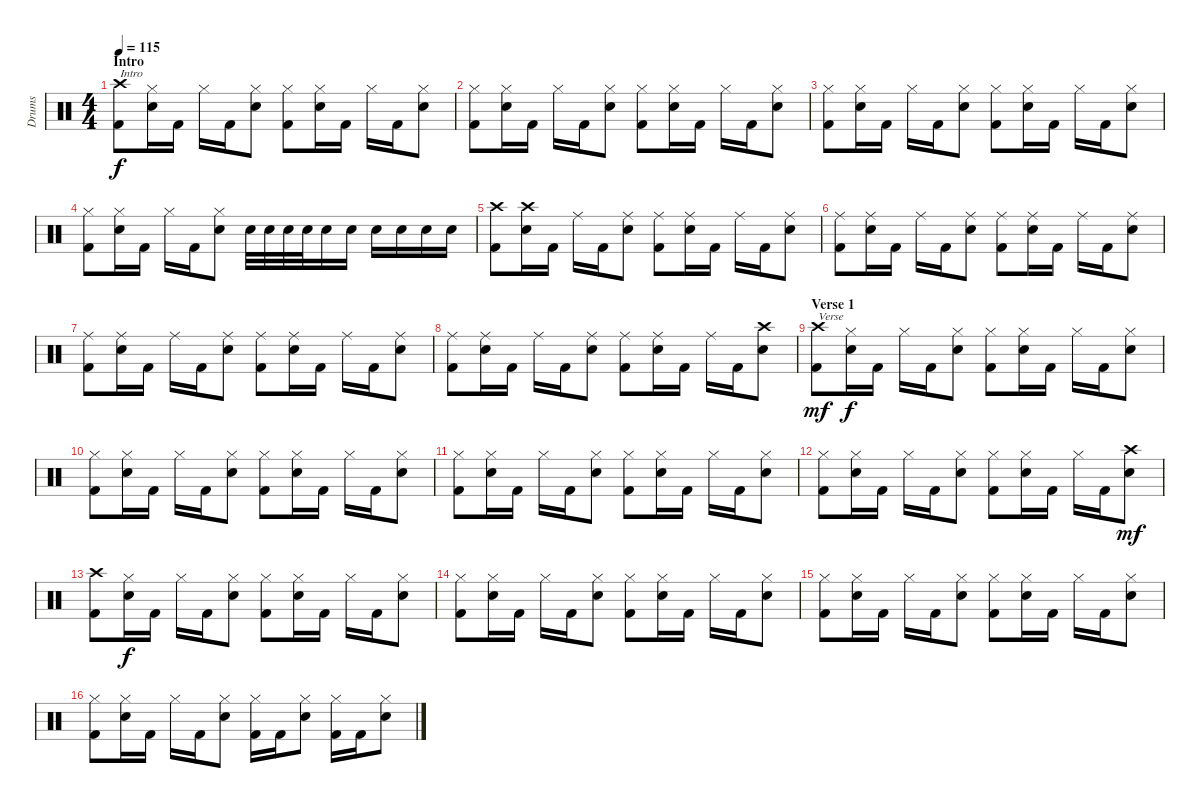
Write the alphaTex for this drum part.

\track ("Drums" "Drums") {instrument percussion}
\staff {score}
\articulation defaults
\ts (4 4)
\section ("" "Intro")
\tempo 115
\clef neutral
\ks c
("Kick (hit) 2" "Crash high (hit)").8{txt "Intro" dy f} ("Snare (hit) 2" "Hi-Hat (closed)").16 "Kick (hit) 2".16 "Hi-Hat (closed)".16 "Kick (hit) 2".16 ("Snare (hit) 2" "Hi-Hat (closed)").8 ("Kick (hit) 2" "Hi-Hat (closed)").8 ("Snare (hit) 2" "Hi-Hat (closed)").16 "Kick (hit) 2".16 "Hi-Hat (closed)".16 "Kick (hit) 2".16 ("Snare (hit) 2" "Hi-Hat (closed)").8 |
("Kick (hit) 2" "Hi-Hat (closed)").8 ("Snare (hit) 2" "Hi-Hat (closed)").16 "Kick (hit) 2".16 "Hi-Hat (closed)".16 "Kick (hit) 2".16 ("Snare (hit) 2" "Hi-Hat (closed)").8 ("Kick (hit) 2" "Hi-Hat (closed)").8 ("Snare (hit) 2" "Hi-Hat (closed)").16 "Kick (hit) 2".16 "Hi-Hat (closed)".16 "Kick (hit) 2".16 ("Snare (hit) 2" "Hi-Hat (closed)").8 |
("Kick (hit) 2" "Hi-Hat (closed)").8 ("Snare (hit) 2" "Hi-Hat (closed)").16 "Kick (hit) 2".16 "Hi-Hat (closed)".16 "Kick (hit) 2".16 ("Snare (hit) 2" "Hi-Hat (closed)").8 ("Kick (hit) 2" "Hi-Hat (closed)").8 ("Snare (hit) 2" "Hi-Hat (closed)").16 "Kick (hit) 2".16 "Hi-Hat (closed)".16 "Kick (hit) 2".16 ("Snare (hit) 2" "Hi-Hat (closed)").8 |
("Kick (hit) 2" "Hi-Hat (closed)").8 ("Snare (hit) 2" "Hi-Hat (closed)").16 "Kick (hit) 2".16 "Hi-Hat (closed)".16 "Kick (hit) 2".16 ("Snare (hit) 2" "Hi-Hat (closed)").8 "Snare (hit) 2".32 "Snare (hit) 2".32 "Snare (hit) 2".32 "Snare (hit) 2".32 "Snare (hit) 2".16 "Snare (hit) 2".16 "Snare (hit) 2".16 "Snare (hit) 2".16 "Snare (hit) 2".16 "Snare (hit) 2".16 |
("Kick (hit) 2" "Crash high (hit)").8 ("Crash high (hit)" "Snare (hit) 2").16 "Kick (hit) 2".16 "Ride (middle)".16 "Kick (hit) 2".16 ("Ride (middle)" "Snare (hit) 2").8 ("Kick (hit) 2" "Ride (middle)").8 ("Ride (middle)" "Snare (hit) 2").16 "Kick (hit) 2".16 "Ride (middle)".16 "Kick (hit) 2".16 ("Ride (middle)" "Snare (hit) 2").8 |
("Kick (hit) 2" "Ride (middle)").8 ("Ride (middle)" "Snare (hit) 2").16 "Kick (hit) 2".16 "Ride (middle)".16 "Kick (hit) 2".16 ("Ride (middle)" "Snare (hit) 2").8 ("Kick (hit) 2" "Ride (middle)").8 ("Ride (middle)" "Snare (hit) 2").16 "Kick (hit) 2".16 "Ride (middle)".16 "Kick (hit) 2".16 ("Ride (middle)" "Snare (hit) 2").8 |
("Kick (hit) 2" "Ride (middle)").8 ("Ride (middle)" "Snare (hit) 2").16 "Kick (hit) 2".16 "Ride (middle)".16 "Kick (hit) 2".16 ("Ride (middle)" "Snare (hit) 2").8 ("Kick (hit) 2" "Ride (middle)").8 ("Ride (middle)" "Snare (hit) 2").16 "Kick (hit) 2".16 "Ride (middle)".16 "Kick (hit) 2".16 ("Ride (middle)" "Snare (hit) 2").8 |
("Kick (hit) 2" "Ride (middle)").8 ("Ride (middle)" "Snare (hit) 2").16 "Kick (hit) 2".16 "Ride (middle)".16 "Kick (hit) 2".16 ("Ride (middle)" "Snare (hit) 2").8 ("Kick (hit) 2" "Ride (middle)").8 ("Ride (middle)" "Snare (hit) 2").16 "Kick (hit) 2".16 "Ride (middle)".16 "Kick (hit) 2".16 ("Crash high (hit)" "Snare (hit) 2").8 |
\section ("" "Verse 1")
("Kick (hit) 2" "Crash high (hit)").8{txt "Verse" dy mf} ("Snare (hit) 2" "Hi-Hat (closed)").16{dy f} "Kick (hit) 2".16 "Hi-Hat (closed)".16 "Kick (hit) 2".16 ("Snare (hit) 2" "Hi-Hat (closed)").8 ("Kick (hit) 2" "Hi-Hat (closed)").8 ("Snare (hit) 2" "Hi-Hat (closed)").16 "Kick (hit) 2".16 "Hi-Hat (closed)".16 "Kick (hit) 2".16 ("Snare (hit) 2" "Hi-Hat (closed)").8 |
("Kick (hit) 2" "Hi-Hat (closed)").8 ("Snare (hit) 2" "Hi-Hat (closed)").16 "Kick (hit) 2".16 "Hi-Hat (closed)".16 "Kick (hit) 2".16 ("Snare (hit) 2" "Hi-Hat (closed)").8 ("Kick (hit) 2" "Hi-Hat (closed)").8 ("Snare (hit) 2" "Hi-Hat (closed)").16 "Kick (hit) 2".16 "Hi-Hat (closed)".16 "Kick (hit) 2".16 ("Snare (hit) 2" "Hi-Hat (closed)").8 |
("Kick (hit) 2" "Hi-Hat (closed)").8 ("Snare (hit) 2" "Hi-Hat (closed)").16 "Kick (hit) 2".16 "Hi-Hat (closed)".16 "Kick (hit) 2".16 ("Snare (hit) 2" "Hi-Hat (closed)").8 ("Kick (hit) 2" "Hi-Hat (closed)").8 ("Snare (hit) 2" "Hi-Hat (closed)").16 "Kick (hit) 2".16 "Hi-Hat (closed)".16 "Kick (hit) 2".16 ("Snare (hit) 2" "Hi-Hat (closed)").8 |
("Kick (hit) 2" "Hi-Hat (closed)").8 ("Snare (hit) 2" "Hi-Hat (closed)").16 "Kick (hit) 2".16 "Hi-Hat (closed)".16 "Kick (hit) 2".16 ("Snare (hit) 2" "Hi-Hat (closed)").8 ("Kick (hit) 2" "Hi-Hat (closed)").8 ("Snare (hit) 2" "Hi-Hat (closed)").16 "Kick (hit) 2".16 "Hi-Hat (closed)".16 "Kick (hit) 2".16 ("Crash high (hit)" "Snare (hit) 2").8{dy mf} |
("Kick (hit) 2" "Crash high (hit)").8 ("Snare (hit) 2" "Hi-Hat (closed)").16{dy f} "Kick (hit) 2".16 "Hi-Hat (closed)".16 "Kick (hit) 2".16 ("Snare (hit) 2" "Hi-Hat (closed)").8 ("Kick (hit) 2" "Hi-Hat (closed)").8 ("Snare (hit) 2" "Hi-Hat (closed)").16 "Kick (hit) 2".16 "Hi-Hat (closed)".16 "Kick (hit) 2".16 ("Snare (hit) 2" "Hi-Hat (closed)").8 |
("Kick (hit) 2" "Hi-Hat (closed)").8 ("Snare (hit) 2" "Hi-Hat (closed)").16 "Kick (hit) 2".16 "Hi-Hat (closed)".16 "Kick (hit) 2".16 ("Snare (hit) 2" "Hi-Hat (closed)").8 ("Kick (hit) 2" "Hi-Hat (closed)").8 ("Snare (hit) 2" "Hi-Hat (closed)").16 "Kick (hit) 2".16 "Hi-Hat (closed)".16 "Kick (hit) 2".16 ("Snare (hit) 2" "Hi-Hat (closed)").8 |
("Kick (hit) 2" "Hi-Hat (closed)").8 ("Snare (hit) 2" "Hi-Hat (closed)").16 "Kick (hit) 2".16 "Hi-Hat (closed)".16 "Kick (hit) 2".16 ("Snare (hit) 2" "Hi-Hat (closed)").8 ("Kick (hit) 2" "Hi-Hat (closed)").8 ("Snare (hit) 2" "Hi-Hat (closed)").16 "Kick (hit) 2".16 "Hi-Hat (closed)".16 "Kick (hit) 2".16 ("Snare (hit) 2" "Hi-Hat (closed)").8 |
("Kick (hit) 2" "Hi-Hat (closed)").8 ("Snare (hit) 2" "Hi-Hat (closed)").16 "Kick (hit) 2".16 "Hi-Hat (closed)".16 "Kick (hit) 2".16 ("Snare (hit) 2" "Hi-Hat (closed)").8 ("Kick (hit) 2" "Hi-Hat (closed)").16 "Kick (hit) 2".16 ("Snare (hit) 2" "Hi-Hat (closed)").8 ("Kick (hit) 2" "Hi-Hat (closed)").16 "Kick (hit) 2".16 ("Snare (hit) 2" "Hi-Hat (closed)").8
